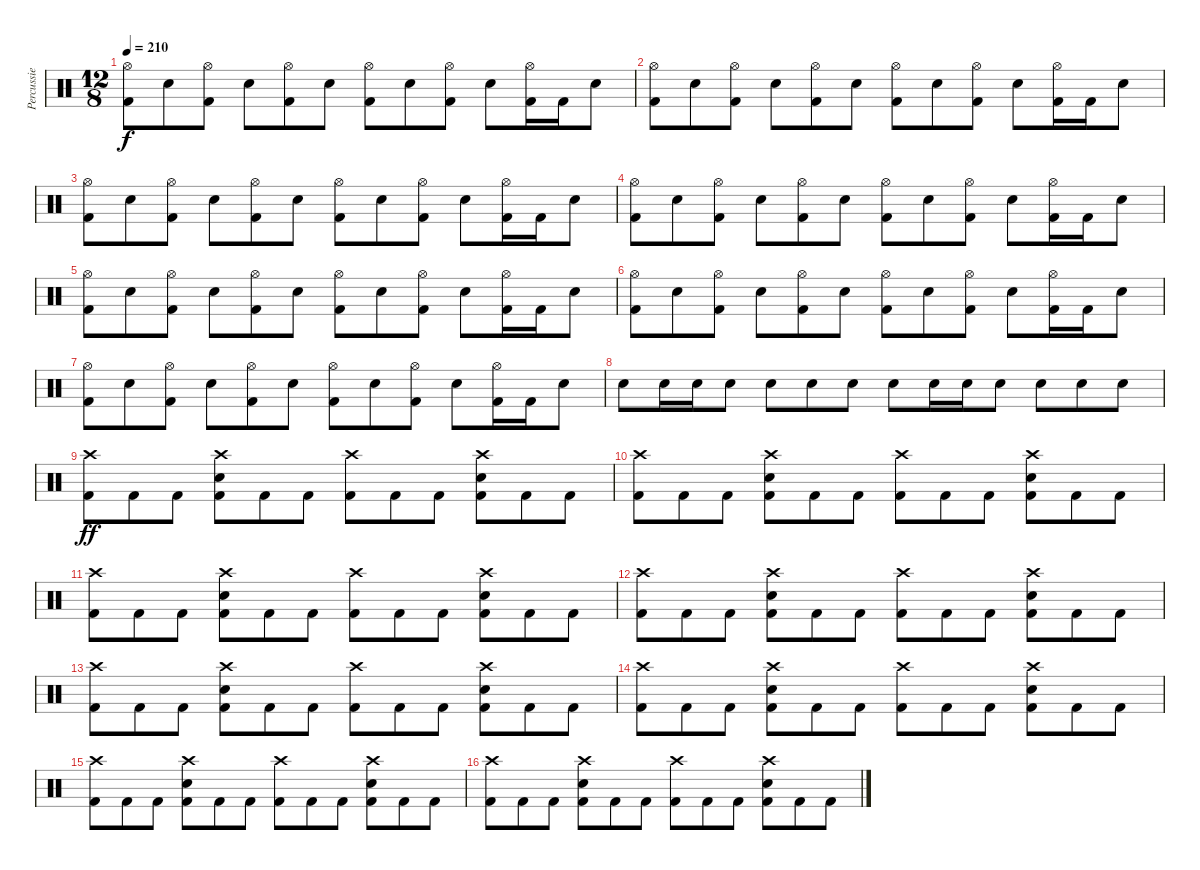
\track ("Percussie" "Percussie") {instrument percussion}
\staff {score}
\articulation defaults
\ts (12 8)
\tempo 210
\clef neutral
\ks c
("Kick (hit) 2" "Hi-Hat (open)").8{dy f} "Snare (hit) 2".8 ("Kick (hit) 2" "Hi-Hat (open)").8 "Snare (hit) 2".8 ("Kick (hit) 2" "Hi-Hat (open)").8 "Snare (hit) 2".8 ("Kick (hit) 2" "Hi-Hat (open)").8 "Snare (hit) 2".8 ("Kick (hit) 2" "Hi-Hat (open)").8 "Snare (hit) 2".8 ("Kick (hit) 2" "Hi-Hat (open)").16 "Kick (hit) 2".16 "Snare (hit) 2".8 |
("Kick (hit) 2" "Hi-Hat (open)").8 "Snare (hit) 2".8 ("Kick (hit) 2" "Hi-Hat (open)").8 "Snare (hit) 2".8 ("Kick (hit) 2" "Hi-Hat (open)").8 "Snare (hit) 2".8 ("Kick (hit) 2" "Hi-Hat (open)").8 "Snare (hit) 2".8 ("Kick (hit) 2" "Hi-Hat (open)").8 "Snare (hit) 2".8 ("Kick (hit) 2" "Hi-Hat (open)").16 "Kick (hit) 2".16 "Snare (hit) 2".8 |
("Kick (hit) 2" "Hi-Hat (open)").8 "Snare (hit) 2".8 ("Kick (hit) 2" "Hi-Hat (open)").8 "Snare (hit) 2".8 ("Kick (hit) 2" "Hi-Hat (open)").8 "Snare (hit) 2".8 ("Kick (hit) 2" "Hi-Hat (open)").8 "Snare (hit) 2".8 ("Kick (hit) 2" "Hi-Hat (open)").8 "Snare (hit) 2".8 ("Kick (hit) 2" "Hi-Hat (open)").16 "Kick (hit) 2".16 "Snare (hit) 2".8 |
("Kick (hit) 2" "Hi-Hat (open)").8 "Snare (hit) 2".8 ("Kick (hit) 2" "Hi-Hat (open)").8 "Snare (hit) 2".8 ("Kick (hit) 2" "Hi-Hat (open)").8 "Snare (hit) 2".8 ("Kick (hit) 2" "Hi-Hat (open)").8 "Snare (hit) 2".8 ("Kick (hit) 2" "Hi-Hat (open)").8 "Snare (hit) 2".8 ("Kick (hit) 2" "Hi-Hat (open)").16 "Kick (hit) 2".16 "Snare (hit) 2".8 |
("Kick (hit) 2" "Hi-Hat (open)").8 "Snare (hit) 2".8 ("Kick (hit) 2" "Hi-Hat (open)").8 "Snare (hit) 2".8 ("Kick (hit) 2" "Hi-Hat (open)").8 "Snare (hit) 2".8 ("Kick (hit) 2" "Hi-Hat (open)").8 "Snare (hit) 2".8 ("Kick (hit) 2" "Hi-Hat (open)").8 "Snare (hit) 2".8 ("Kick (hit) 2" "Hi-Hat (open)").16 "Kick (hit) 2".16 "Snare (hit) 2".8 |
("Kick (hit) 2" "Hi-Hat (open)").8 "Snare (hit) 2".8 ("Kick (hit) 2" "Hi-Hat (open)").8 "Snare (hit) 2".8 ("Kick (hit) 2" "Hi-Hat (open)").8 "Snare (hit) 2".8 ("Kick (hit) 2" "Hi-Hat (open)").8 "Snare (hit) 2".8 ("Kick (hit) 2" "Hi-Hat (open)").8 "Snare (hit) 2".8 ("Kick (hit) 2" "Hi-Hat (open)").16 "Kick (hit) 2".16 "Snare (hit) 2".8 |
("Kick (hit) 2" "Hi-Hat (open)").8 "Snare (hit) 2".8 ("Kick (hit) 2" "Hi-Hat (open)").8 "Snare (hit) 2".8 ("Kick (hit) 2" "Hi-Hat (open)").8 "Snare (hit) 2".8 ("Kick (hit) 2" "Hi-Hat (open)").8 "Snare (hit) 2".8 ("Kick (hit) 2" "Hi-Hat (open)").8 "Snare (hit) 2".8 ("Kick (hit) 2" "Hi-Hat (open)").16 "Kick (hit) 2".16 "Snare (hit) 2".8 |
"Snare (hit) 2".8 "Snare (hit) 2".16 "Snare (hit) 2".16 "Snare (hit) 2".8 "Snare (hit) 2".8 "Snare (hit) 2".8 "Snare (hit) 2".8 "Snare (hit) 2".8 "Snare (hit) 2".16 "Snare (hit) 2".16 "Snare (hit) 2".8 "Snare (hit) 2".8 "Snare (hit) 2".8 "Snare (hit) 2".8 |
("Crash high (hit)" "Kick (hit) 2").8{dy ff} "Kick (hit) 2".8 "Kick (hit) 2".8 ("Crash high (hit)" "Snare (hit) 2" "Kick (hit) 2").8 "Kick (hit) 2".8 "Kick (hit) 2".8 ("Crash high (hit)" "Kick (hit) 2").8 "Kick (hit) 2".8 "Kick (hit) 2".8 ("Crash high (hit)" "Snare (hit) 2" "Kick (hit) 2").8 "Kick (hit) 2".8 "Kick (hit) 2".8 |
("Crash high (hit)" "Kick (hit) 2").8 "Kick (hit) 2".8 "Kick (hit) 2".8 ("Crash high (hit)" "Snare (hit) 2" "Kick (hit) 2").8 "Kick (hit) 2".8 "Kick (hit) 2".8 ("Crash high (hit)" "Kick (hit) 2").8 "Kick (hit) 2".8 "Kick (hit) 2".8 ("Crash high (hit)" "Snare (hit) 2" "Kick (hit) 2").8 "Kick (hit) 2".8 "Kick (hit) 2".8 |
("Crash high (hit)" "Kick (hit) 2").8 "Kick (hit) 2".8 "Kick (hit) 2".8 ("Crash high (hit)" "Snare (hit) 2" "Kick (hit) 2").8 "Kick (hit) 2".8 "Kick (hit) 2".8 ("Crash high (hit)" "Kick (hit) 2").8 "Kick (hit) 2".8 "Kick (hit) 2".8 ("Crash high (hit)" "Snare (hit) 2" "Kick (hit) 2").8 "Kick (hit) 2".8 "Kick (hit) 2".8 |
("Crash high (hit)" "Kick (hit) 2").8 "Kick (hit) 2".8 "Kick (hit) 2".8 ("Crash high (hit)" "Snare (hit) 2" "Kick (hit) 2").8 "Kick (hit) 2".8 "Kick (hit) 2".8 ("Crash high (hit)" "Kick (hit) 2").8 "Kick (hit) 2".8 "Kick (hit) 2".8 ("Crash high (hit)" "Snare (hit) 2" "Kick (hit) 2").8 "Kick (hit) 2".8 "Kick (hit) 2".8 |
("Crash high (hit)" "Kick (hit) 2").8 "Kick (hit) 2".8 "Kick (hit) 2".8 ("Crash high (hit)" "Snare (hit) 2" "Kick (hit) 2").8 "Kick (hit) 2".8 "Kick (hit) 2".8 ("Crash high (hit)" "Kick (hit) 2").8 "Kick (hit) 2".8 "Kick (hit) 2".8 ("Crash high (hit)" "Snare (hit) 2" "Kick (hit) 2").8 "Kick (hit) 2".8 "Kick (hit) 2".8 |
("Crash high (hit)" "Kick (hit) 2").8 "Kick (hit) 2".8 "Kick (hit) 2".8 ("Crash high (hit)" "Snare (hit) 2" "Kick (hit) 2").8 "Kick (hit) 2".8 "Kick (hit) 2".8 ("Crash high (hit)" "Kick (hit) 2").8 "Kick (hit) 2".8 "Kick (hit) 2".8 ("Crash high (hit)" "Snare (hit) 2" "Kick (hit) 2").8 "Kick (hit) 2".8 "Kick (hit) 2".8 |
("Crash high (hit)" "Kick (hit) 2").8 "Kick (hit) 2".8 "Kick (hit) 2".8 ("Crash high (hit)" "Snare (hit) 2" "Kick (hit) 2").8 "Kick (hit) 2".8 "Kick (hit) 2".8 ("Crash high (hit)" "Kick (hit) 2").8 "Kick (hit) 2".8 "Kick (hit) 2".8 ("Crash high (hit)" "Snare (hit) 2" "Kick (hit) 2").8 "Kick (hit) 2".8 "Kick (hit) 2".8 |
("Crash high (hit)" "Kick (hit) 2").8 "Kick (hit) 2".8 "Kick (hit) 2".8 ("Crash high (hit)" "Snare (hit) 2" "Kick (hit) 2").8 "Kick (hit) 2".8 "Kick (hit) 2".8 ("Crash high (hit)" "Kick (hit) 2").8 "Kick (hit) 2".8 "Kick (hit) 2".8 ("Crash high (hit)" "Snare (hit) 2" "Kick (hit) 2").8 "Kick (hit) 2".8 "Kick (hit) 2".8
